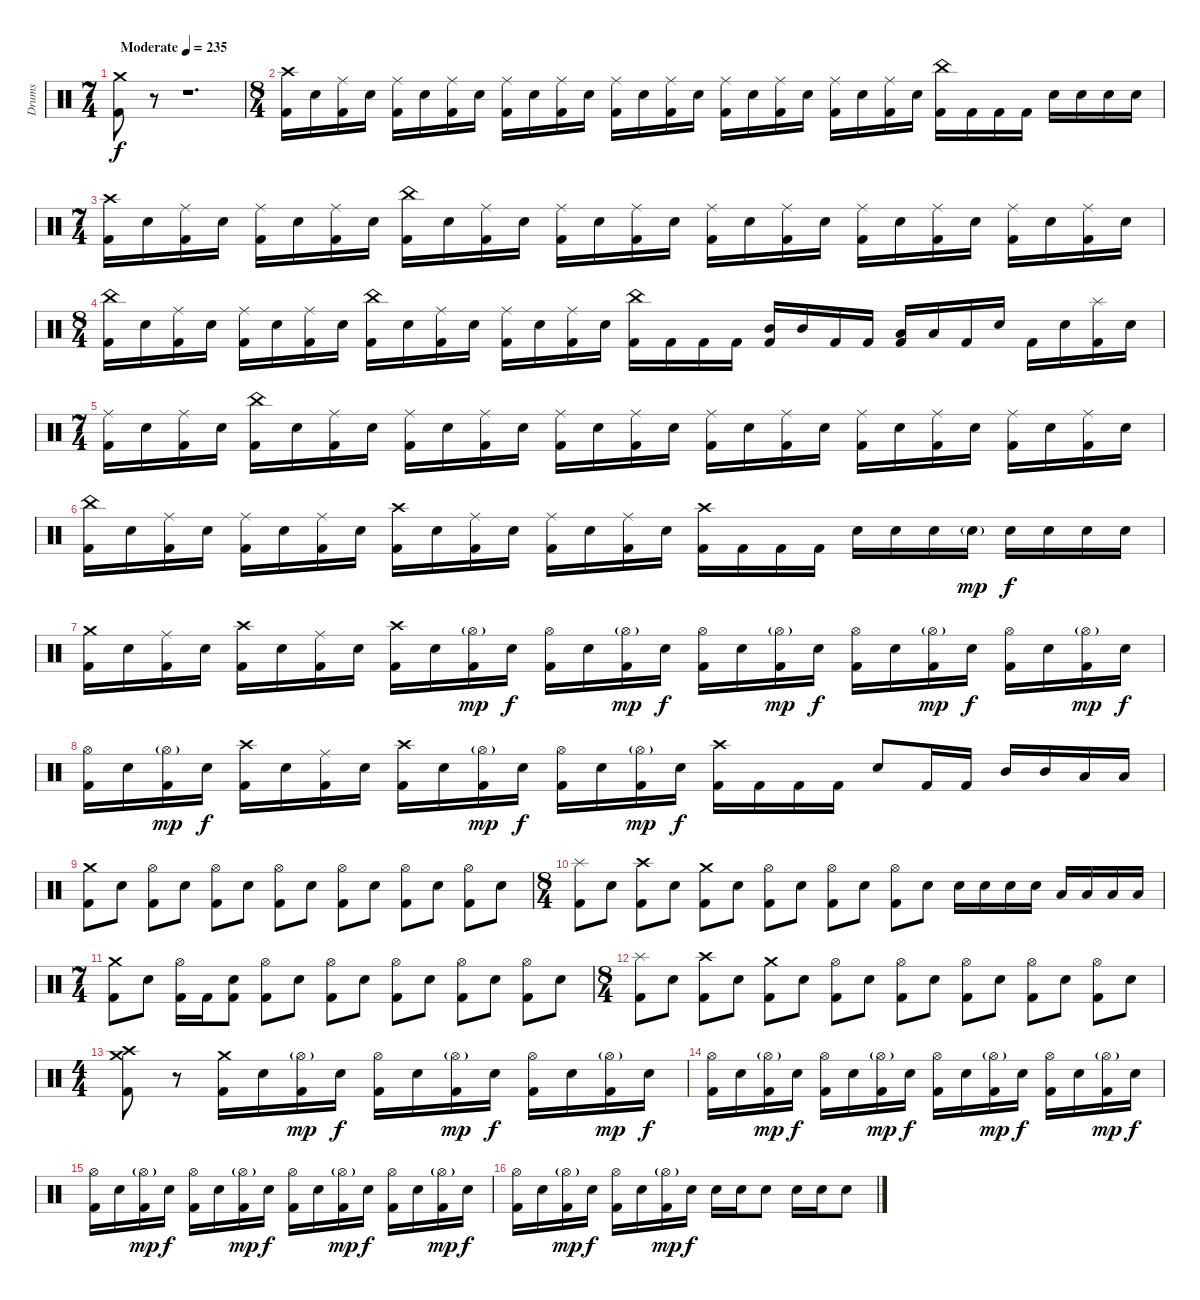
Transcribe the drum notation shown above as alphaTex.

\track ("Drums" "Drums") {instrument percussion}
\staff {score}
\articulation defaults
\ts (7 4)
\tempo (235 "Moderate")
\clef neutral
\ks c
("Crash medium (hit)" "Kick (hit) 2").8{dy f} r.8 r.1{d} |
\ts (8 4)
("Crash high (hit)" "Kick (hit) 2").16 "Electric Snare (hit)".16 ("Ride (middle)" "Kick (hit) 2").16 "Electric Snare (hit)".16 ("Ride (middle)" "Kick (hit) 2").16 "Electric Snare (hit)".16 ("Ride (middle)" "Kick (hit) 2").16 "Electric Snare (hit)".16 ("Ride (middle)" "Kick (hit) 2").16 "Electric Snare (hit)".16 ("Ride (middle)" "Kick (hit) 2").16 "Electric Snare (hit)".16 ("Ride (middle)" "Kick (hit) 2").16 "Electric Snare (hit)".16 ("Ride (middle)" "Kick (hit) 2").16 "Electric Snare (hit)".16 ("Ride (middle)" "Kick (hit) 2").16 "Electric Snare (hit)".16 ("Ride (middle)" "Kick (hit) 2").16 "Electric Snare (hit)".16 ("Ride (middle)" "Kick (hit) 2").16 "Electric Snare (hit)".16 ("Ride (middle)" "Kick (hit) 2").16 "Electric Snare (hit)".16 ("China (hit)" "Kick (hit) 2").16 "Kick (hit) 2".16 "Kick (hit) 2".16 "Kick (hit) 2".16 "Electric Snare (hit)".16 "Electric Snare (hit)".16 "Electric Snare (hit)".16 "Electric Snare (hit)".16 |
\ts (7 4)
("Crash high (hit)" "Kick (hit) 2").16 "Electric Snare (hit)".16 ("Ride (middle)" "Kick (hit) 2").16 "Electric Snare (hit)".16 ("Ride (middle)" "Kick (hit) 2").16 "Electric Snare (hit)".16 ("Ride (middle)" "Kick (hit) 2").16 "Electric Snare (hit)".16 ("China (hit)" "Kick (hit) 2").16 "Electric Snare (hit)".16 ("Ride (middle)" "Kick (hit) 2").16 "Electric Snare (hit)".16 ("Ride (middle)" "Kick (hit) 2").16 "Electric Snare (hit)".16 ("Ride (middle)" "Kick (hit) 2").16 "Electric Snare (hit)".16 ("Ride (middle)" "Kick (hit) 2").16 "Electric Snare (hit)".16 ("Ride (middle)" "Kick (hit) 2").16 "Electric Snare (hit)".16 ("Ride (middle)" "Kick (hit) 2").16 "Electric Snare (hit)".16 ("Ride (middle)" "Kick (hit) 2").16 "Electric Snare (hit)".16 ("Ride (middle)" "Kick (hit) 2").16 "Electric Snare (hit)".16 ("Ride (middle)" "Kick (hit) 2").16 "Electric Snare (hit)".16 |
\ts (8 4)
("China (hit)" "Kick (hit) 2").16 "Electric Snare (hit)".16 ("Ride (middle)" "Kick (hit) 2").16 "Electric Snare (hit)".16 ("Ride (middle)" "Kick (hit) 2").16 "Electric Snare (hit)".16 ("Ride (middle)" "Kick (hit) 2").16 "Electric Snare (hit)".16 ("China (hit)" "Kick (hit) 2").16 "Electric Snare (hit)".16 ("Ride (middle)" "Kick (hit) 2").16 "Electric Snare (hit)".16 ("Ride (middle)" "Kick (hit) 2").16 "Electric Snare (hit)".16 ("Ride (middle)" "Kick (hit) 2").16 "Electric Snare (hit)".16 ("China (hit)" "Kick (hit) 2").16 "Kick (hit) 2".16 "Kick (hit) 2".16 "Kick (hit) 2".16 ("Mid Tom (hit)" "Kick (hit) 2").16 "Mid Tom (hit)".16 "Kick (hit) 2".16 "Kick (hit) 2".16 ("Low Tom (hit)" "Kick (hit) 2").16 "Low Tom (hit)".16 "Kick (hit) 2".16 "Electric Snare (hit)".16 "Kick (hit) 2".16 "Electric Snare (hit)".16 ("Splash (hit)" "Kick (hit) 2").16 "Electric Snare (hit)".16 |
\ts (7 4)
("Ride (middle)" "Kick (hit) 2").16 "Electric Snare (hit)".16 ("Ride (middle)" "Kick (hit) 2").16 "Electric Snare (hit)".16 ("China (hit)" "Kick (hit) 2").16 "Electric Snare (hit)".16 ("Ride (middle)" "Kick (hit) 2").16 "Electric Snare (hit)".16 ("Ride (middle)" "Kick (hit) 2").16 "Electric Snare (hit)".16 ("Ride (middle)" "Kick (hit) 2").16 "Electric Snare (hit)".16 ("Ride (middle)" "Kick (hit) 2").16 "Electric Snare (hit)".16 ("Ride (middle)" "Kick (hit) 2").16 "Electric Snare (hit)".16 ("Ride (middle)" "Kick (hit) 2").16 "Electric Snare (hit)".16 ("Ride (middle)" "Kick (hit) 2").16 "Electric Snare (hit)".16 ("Ride (middle)" "Kick (hit) 2").16 "Electric Snare (hit)".16 ("Ride (middle)" "Kick (hit) 2").16 "Electric Snare (hit)".16 ("Ride (middle)" "Kick (hit) 2").16 "Electric Snare (hit)".16 ("Ride (middle)" "Kick (hit) 2").16 "Electric Snare (hit)".16 |
("China (hit)" "Kick (hit) 2").16 "Electric Snare (hit)".16 ("Ride (middle)" "Kick (hit) 2").16 "Electric Snare (hit)".16 ("Ride (middle)" "Kick (hit) 2").16 "Electric Snare (hit)".16 ("Ride (middle)" "Kick (hit) 2").16 "Electric Snare (hit)".16 ("Crash high (hit)" "Kick (hit) 2").16 "Electric Snare (hit)".16 ("Ride (middle)" "Kick (hit) 2").16 "Electric Snare (hit)".16 ("Ride (middle)" "Kick (hit) 2").16 "Electric Snare (hit)".16 ("Ride (middle)" "Kick (hit) 2").16 "Electric Snare (hit)".16 ("Crash high (hit)" "Kick (hit) 2").16 "Kick (hit) 2".16 "Kick (hit) 2".16 "Kick (hit) 2".16 "Electric Snare (hit)".16 "Electric Snare (hit)".16 "Electric Snare (hit)".16 "Electric Snare (hit)"{g}.16{dy mp} "Electric Snare (hit)".16{dy f} "Electric Snare (hit)".16 "Electric Snare (hit)".16 "Electric Snare (hit)".16 |
("Crash medium (hit)" "Kick (hit) 2").16 "Electric Snare (hit)".16 ("Ride (middle)" "Kick (hit) 2").16 "Electric Snare (hit)".16 ("Crash high (hit)" "Kick (hit) 2").16 "Electric Snare (hit)".16 ("Ride (middle)" "Kick (hit) 2").16 "Electric Snare (hit)".16 ("Crash high (hit)" "Kick (hit) 2").16 "Electric Snare (hit)".16 ("Hi-Hat (open)"{g} "Kick (hit) 2").16{dy mp} "Electric Snare (hit)".16{dy f} ("Hi-Hat (open)" "Kick (hit) 2").16 "Electric Snare (hit)".16 ("Hi-Hat (open)"{g} "Kick (hit) 2").16{dy mp} "Electric Snare (hit)".16{dy f} ("Hi-Hat (open)" "Kick (hit) 2").16 "Electric Snare (hit)".16 ("Hi-Hat (open)"{g} "Kick (hit) 2").16{dy mp} "Electric Snare (hit)".16{dy f} ("Hi-Hat (open)" "Kick (hit) 2").16 "Electric Snare (hit)".16 ("Hi-Hat (open)"{g} "Kick (hit) 2").16{dy mp} "Electric Snare (hit)".16{dy f} ("Hi-Hat (open)" "Kick (hit) 2").16 "Electric Snare (hit)".16 ("Hi-Hat (open)"{g} "Kick (hit) 2").16{dy mp} "Electric Snare (hit)".16{dy f} |
("Hi-Hat (open)" "Kick (hit) 2").16 "Electric Snare (hit)".16 ("Hi-Hat (open)"{g} "Kick (hit) 2").16{dy mp} "Electric Snare (hit)".16{dy f} ("Crash high (hit)" "Kick (hit) 2").16 "Electric Snare (hit)".16 ("Ride (middle)" "Kick (hit) 2").16 "Electric Snare (hit)".16 ("Crash high (hit)" "Kick (hit) 2").16 "Electric Snare (hit)".16 ("Hi-Hat (open)"{g} "Kick (hit) 2").16{dy mp} "Electric Snare (hit)".16{dy f} ("Hi-Hat (open)" "Kick (hit) 2").16 "Electric Snare (hit)".16 ("Hi-Hat (open)"{g} "Kick (hit) 2").16{dy mp} "Electric Snare (hit)".16{dy f} ("Crash high (hit)" "Kick (hit) 2").16 "Kick (hit) 2".16 "Kick (hit) 2".16 "Kick (hit) 2".16 "Electric Snare (hit)".8 "Kick (hit) 2".16 "Kick (hit) 2".16 "Mid Tom (hit)".16 "Mid Tom (hit)".16 "Low Tom (hit)".16 "Low Tom (hit)".16 |
("Crash medium (hit)" "Kick (hit) 2").8 "Electric Snare (hit)".8 ("Hi-Hat (open)" "Kick (hit) 2").8 "Electric Snare (hit)".8 ("Hi-Hat (open)" "Kick (hit) 2").8 "Electric Snare (hit)".8 ("Hi-Hat (open)" "Kick (hit) 2").8 "Electric Snare (hit)".8 ("Hi-Hat (open)" "Kick (hit) 2").8 "Electric Snare (hit)".8 ("Hi-Hat (open)" "Kick (hit) 2").8 "Electric Snare (hit)".8 ("Hi-Hat (open)" "Kick (hit) 2").8 "Electric Snare (hit)".8 |
\ts (8 4)
("Splash (hit)" "Kick (hit) 2").8 "Electric Snare (hit)".8 ("Crash high (hit)" "Kick (hit) 2").8 "Electric Snare (hit)".8 ("Crash medium (hit)" "Kick (hit) 2").8 "Electric Snare (hit)".8 ("Hi-Hat (open)" "Kick (hit) 2").8 "Electric Snare (hit)".8 ("Hi-Hat (open)" "Kick (hit) 2").8 "Electric Snare (hit)".8 ("Hi-Hat (open)" "Kick (hit) 2").8 "Electric Snare (hit)".8 "Electric Snare (hit)".16 "Electric Snare (hit)".16 "Electric Snare (hit)".16 "Electric Snare (hit)".16 "Low Tom (hit)".16 "Low Tom (hit)".16 "Low Tom (hit)".16 "Low Tom (hit)".16 |
\ts (7 4)
("Crash medium (hit)" "Kick (hit) 2").8 "Electric Snare (hit)".8 ("Hi-Hat (open)" "Kick (hit) 2").16 "Kick (hit) 2".16 ("Electric Snare (hit)" "Kick (hit) 2").8 ("Hi-Hat (open)" "Kick (hit) 2").8 "Electric Snare (hit)".8 ("Hi-Hat (open)" "Kick (hit) 2").8 "Electric Snare (hit)".8 ("Hi-Hat (open)" "Kick (hit) 2").8 "Electric Snare (hit)".8 ("Hi-Hat (open)" "Kick (hit) 2").8 "Electric Snare (hit)".8 ("Hi-Hat (open)" "Kick (hit) 2").8 "Electric Snare (hit)".8 |
\ts (8 4)
("Splash (hit)" "Kick (hit) 2").8 "Electric Snare (hit)".8 ("Crash high (hit)" "Kick (hit) 2").8 "Electric Snare (hit)".8 ("Crash medium (hit)" "Kick (hit) 2").8 "Electric Snare (hit)".8 ("Hi-Hat (open)" "Kick (hit) 2").8 "Electric Snare (hit)".8 ("Hi-Hat (open)" "Kick (hit) 2").8 "Electric Snare (hit)".8 ("Hi-Hat (open)" "Kick (hit) 2").8 "Electric Snare (hit)".8 ("Hi-Hat (open)" "Kick (hit) 2").8 "Electric Snare (hit)".8 ("Hi-Hat (open)" "Kick (hit) 2").8 "Electric Snare (hit)".8 |
\ts (4 4)
("Crash medium (hit)" "Crash high (hit)" "Kick (hit) 2").8 r.8 ("Crash medium (hit)" "Kick (hit) 2").16 "Electric Snare (hit)".16 ("Hi-Hat (open)"{g} "Kick (hit) 2").16{dy mp} "Electric Snare (hit)".16{dy f} ("Hi-Hat (open)" "Kick (hit) 2").16 "Electric Snare (hit)".16 ("Hi-Hat (open)"{g} "Kick (hit) 2").16{dy mp} "Electric Snare (hit)".16{dy f} ("Hi-Hat (open)" "Kick (hit) 2").16 "Electric Snare (hit)".16 ("Hi-Hat (open)"{g} "Kick (hit) 2").16{dy mp} "Electric Snare (hit)".16{dy f} |
("Hi-Hat (open)" "Kick (hit) 2").16 "Electric Snare (hit)".16 ("Hi-Hat (open)"{g} "Kick (hit) 2").16{dy mp} "Electric Snare (hit)".16{dy f} ("Hi-Hat (open)" "Kick (hit) 2").16 "Electric Snare (hit)".16 ("Hi-Hat (open)"{g} "Kick (hit) 2").16{dy mp} "Electric Snare (hit)".16{dy f} ("Hi-Hat (open)" "Kick (hit) 2").16 "Electric Snare (hit)".16 ("Hi-Hat (open)"{g} "Kick (hit) 2").16{dy mp} "Electric Snare (hit)".16{dy f} ("Hi-Hat (open)" "Kick (hit) 2").16 "Electric Snare (hit)".16 ("Hi-Hat (open)"{g} "Kick (hit) 2").16{dy mp} "Electric Snare (hit)".16{dy f} |
("Hi-Hat (open)" "Kick (hit) 2").16 "Electric Snare (hit)".16 ("Hi-Hat (open)"{g} "Kick (hit) 2").16{dy mp} "Electric Snare (hit)".16{dy f} ("Hi-Hat (open)" "Kick (hit) 2").16 "Electric Snare (hit)".16 ("Hi-Hat (open)"{g} "Kick (hit) 2").16{dy mp} "Electric Snare (hit)".16{dy f} ("Hi-Hat (open)" "Kick (hit) 2").16 "Electric Snare (hit)".16 ("Hi-Hat (open)"{g} "Kick (hit) 2").16{dy mp} "Electric Snare (hit)".16{dy f} ("Hi-Hat (open)" "Kick (hit) 2").16 "Electric Snare (hit)".16 ("Hi-Hat (open)"{g} "Kick (hit) 2").16{dy mp} "Electric Snare (hit)".16{dy f} |
("Hi-Hat (open)" "Kick (hit) 2").16 "Electric Snare (hit)".16 ("Hi-Hat (open)"{g} "Kick (hit) 2").16{dy mp} "Electric Snare (hit)".16{dy f} ("Hi-Hat (open)" "Kick (hit) 2").16 "Electric Snare (hit)".16 ("Hi-Hat (open)"{g} "Kick (hit) 2").16{dy mp} "Electric Snare (hit)".16{dy f} "Electric Snare (hit)".16 "Electric Snare (hit)".16 "Electric Snare (hit)".8 "Electric Snare (hit)".16 "Electric Snare (hit)".16 "Electric Snare (hit)".8
